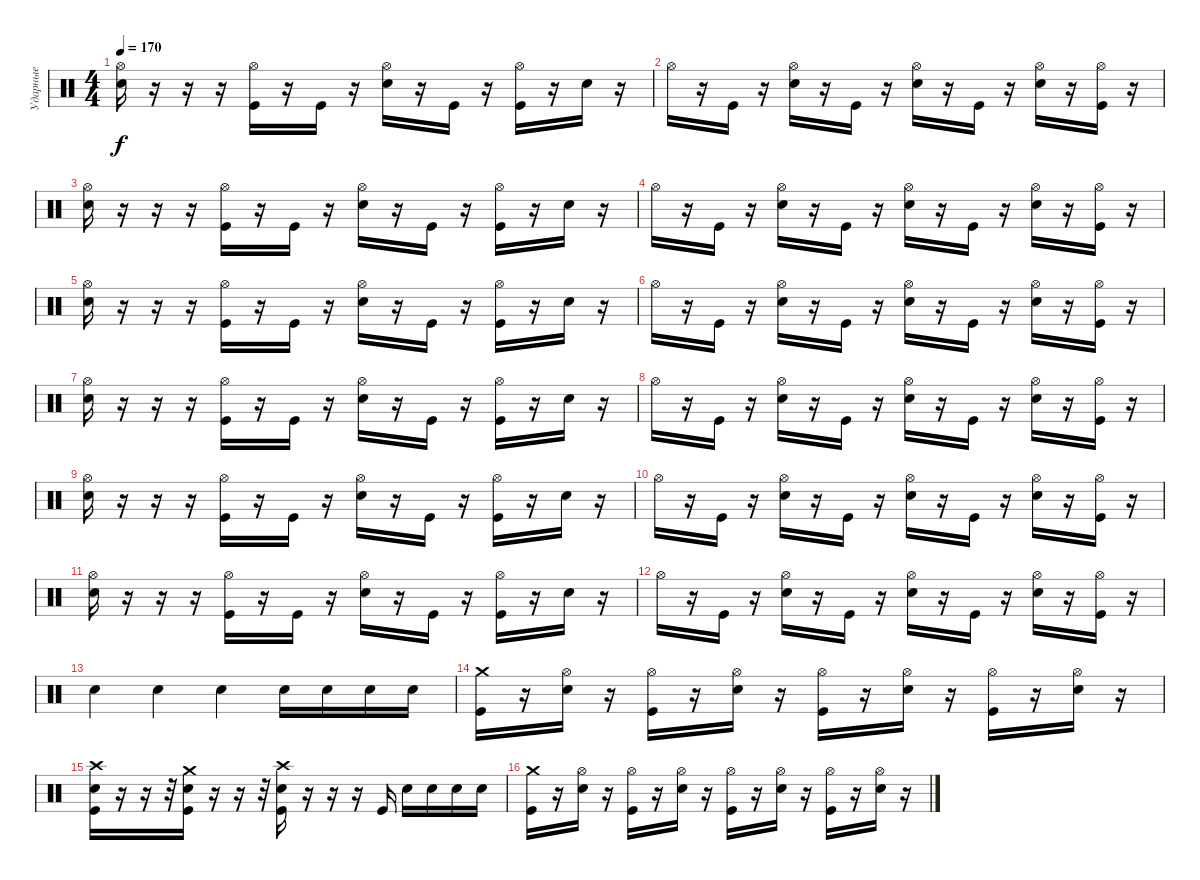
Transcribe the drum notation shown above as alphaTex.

\track ("Ударные" "Ударные") {instrument percussion}
\staff {score}
\articulation defaults
\ts (4 4)
\tempo 170
\clef neutral
\ks c
("Hi-Hat (open)" "Electric Snare (hit)").16{dy f} r.16 r.16 r.16 ("Hi-Hat (open)" "Kick (hit)").16 r.16 "Kick (hit)".16 r.16 ("Hi-Hat (open)" "Electric Snare (hit)").16 r.16 "Kick (hit)".16 r.16 ("Hi-Hat (open)" "Kick (hit)").16 r.16 "Electric Snare (hit)".16 r.16 |
"Hi-Hat (open)".16 r.16 "Kick (hit)".16 r.16 ("Hi-Hat (open)" "Electric Snare (hit)").16 r.16 "Kick (hit)".16 r.16 ("Hi-Hat (open)" "Electric Snare (hit)").16 r.16 "Kick (hit)".16 r.16 ("Hi-Hat (open)" "Electric Snare (hit)").16 r.16 ("Hi-Hat (open)" "Kick (hit)").16 r.16 |
("Hi-Hat (open)" "Electric Snare (hit)").16 r.16 r.16 r.16 ("Hi-Hat (open)" "Kick (hit)").16 r.16 "Kick (hit)".16 r.16 ("Hi-Hat (open)" "Electric Snare (hit)").16 r.16 "Kick (hit)".16 r.16 ("Hi-Hat (open)" "Kick (hit)").16 r.16 "Electric Snare (hit)".16 r.16 |
"Hi-Hat (open)".16 r.16 "Kick (hit)".16 r.16 ("Hi-Hat (open)" "Electric Snare (hit)").16 r.16 "Kick (hit)".16 r.16 ("Hi-Hat (open)" "Electric Snare (hit)").16 r.16 "Kick (hit)".16 r.16 ("Hi-Hat (open)" "Electric Snare (hit)").16 r.16 ("Hi-Hat (open)" "Kick (hit)").16 r.16 |
("Hi-Hat (open)" "Electric Snare (hit)").16 r.16 r.16 r.16 ("Hi-Hat (open)" "Kick (hit)").16 r.16 "Kick (hit)".16 r.16 ("Hi-Hat (open)" "Electric Snare (hit)").16 r.16 "Kick (hit)".16 r.16 ("Hi-Hat (open)" "Kick (hit)").16 r.16 "Electric Snare (hit)".16 r.16 |
"Hi-Hat (open)".16 r.16 "Kick (hit)".16 r.16 ("Hi-Hat (open)" "Electric Snare (hit)").16 r.16 "Kick (hit)".16 r.16 ("Hi-Hat (open)" "Electric Snare (hit)").16 r.16 "Kick (hit)".16 r.16 ("Hi-Hat (open)" "Electric Snare (hit)").16 r.16 ("Hi-Hat (open)" "Kick (hit)").16 r.16 |
("Hi-Hat (open)" "Electric Snare (hit)").16 r.16 r.16 r.16 ("Hi-Hat (open)" "Kick (hit)").16 r.16 "Kick (hit)".16 r.16 ("Hi-Hat (open)" "Electric Snare (hit)").16 r.16 "Kick (hit)".16 r.16 ("Hi-Hat (open)" "Kick (hit)").16 r.16 "Electric Snare (hit)".16 r.16 |
"Hi-Hat (open)".16 r.16 "Kick (hit)".16 r.16 ("Hi-Hat (open)" "Electric Snare (hit)").16 r.16 "Kick (hit)".16 r.16 ("Hi-Hat (open)" "Electric Snare (hit)").16 r.16 "Kick (hit)".16 r.16 ("Hi-Hat (open)" "Electric Snare (hit)").16 r.16 ("Hi-Hat (open)" "Kick (hit)").16 r.16 |
("Hi-Hat (open)" "Electric Snare (hit)").16 r.16 r.16 r.16 ("Hi-Hat (open)" "Kick (hit)").16 r.16 "Kick (hit)".16 r.16 ("Hi-Hat (open)" "Electric Snare (hit)").16 r.16 "Kick (hit)".16 r.16 ("Hi-Hat (open)" "Kick (hit)").16 r.16 "Electric Snare (hit)".16 r.16 |
"Hi-Hat (open)".16 r.16 "Kick (hit)".16 r.16 ("Hi-Hat (open)" "Electric Snare (hit)").16 r.16 "Kick (hit)".16 r.16 ("Hi-Hat (open)" "Electric Snare (hit)").16 r.16 "Kick (hit)".16 r.16 ("Hi-Hat (open)" "Electric Snare (hit)").16 r.16 ("Hi-Hat (open)" "Kick (hit)").16 r.16 |
("Hi-Hat (open)" "Electric Snare (hit)").16 r.16 r.16 r.16 ("Hi-Hat (open)" "Kick (hit)").16 r.16 "Kick (hit)".16 r.16 ("Hi-Hat (open)" "Electric Snare (hit)").16 r.16 "Kick (hit)".16 r.16 ("Hi-Hat (open)" "Kick (hit)").16 r.16 "Electric Snare (hit)".16 r.16 |
"Hi-Hat (open)".16 r.16 "Kick (hit)".16 r.16 ("Hi-Hat (open)" "Electric Snare (hit)").16 r.16 "Kick (hit)".16 r.16 ("Hi-Hat (open)" "Electric Snare (hit)").16 r.16 "Kick (hit)".16 r.16 ("Hi-Hat (open)" "Electric Snare (hit)").16 r.16 ("Hi-Hat (open)" "Kick (hit)").16 r.16 |
"Electric Snare (hit)".4 "Electric Snare (hit)".4 "Electric Snare (hit)".4 "Electric Snare (hit)".16 "Electric Snare (hit)".16 "Electric Snare (hit)".16 "Electric Snare (hit)".16 |
("Crash medium (hit)" "Kick (hit)").16 r.16 ("Hi-Hat (open)" "Electric Snare (hit)").16 r.16 ("Hi-Hat (open)" "Kick (hit)").16 r.16 ("Hi-Hat (open)" "Electric Snare (hit)").16 r.16 ("Hi-Hat (open)" "Kick (hit)").16 r.16 ("Hi-Hat (open)" "Electric Snare (hit)").16 r.16 ("Hi-Hat (open)" "Kick (hit)").16 r.16 ("Hi-Hat (open)" "Electric Snare (hit)").16 r.16 |
("Crash high (hit)" "Electric Snare (hit)" "Kick (hit)").16 r.16 r.16 r.32 ("Crash medium (hit)" "Electric Snare (hit)" "Kick (hit)").16 r.16 r.16 r.32 ("Crash high (hit)" "Electric Snare (hit)" "Kick (hit)").16 r.16 r.16 r.16 "Kick (hit)".16 "Electric Snare (hit)".16 "Electric Snare (hit)".16 "Electric Snare (hit)".16 "Electric Snare (hit)".16 |
("Crash medium (hit)" "Kick (hit)").16 r.16 ("Hi-Hat (open)" "Electric Snare (hit)").16 r.16 ("Hi-Hat (open)" "Kick (hit)").16 r.16 ("Hi-Hat (open)" "Electric Snare (hit)").16 r.16 ("Hi-Hat (open)" "Kick (hit)").16 r.16 ("Hi-Hat (open)" "Electric Snare (hit)").16 r.16 ("Hi-Hat (open)" "Kick (hit)").16 r.16 ("Hi-Hat (open)" "Electric Snare (hit)").16 r.16
